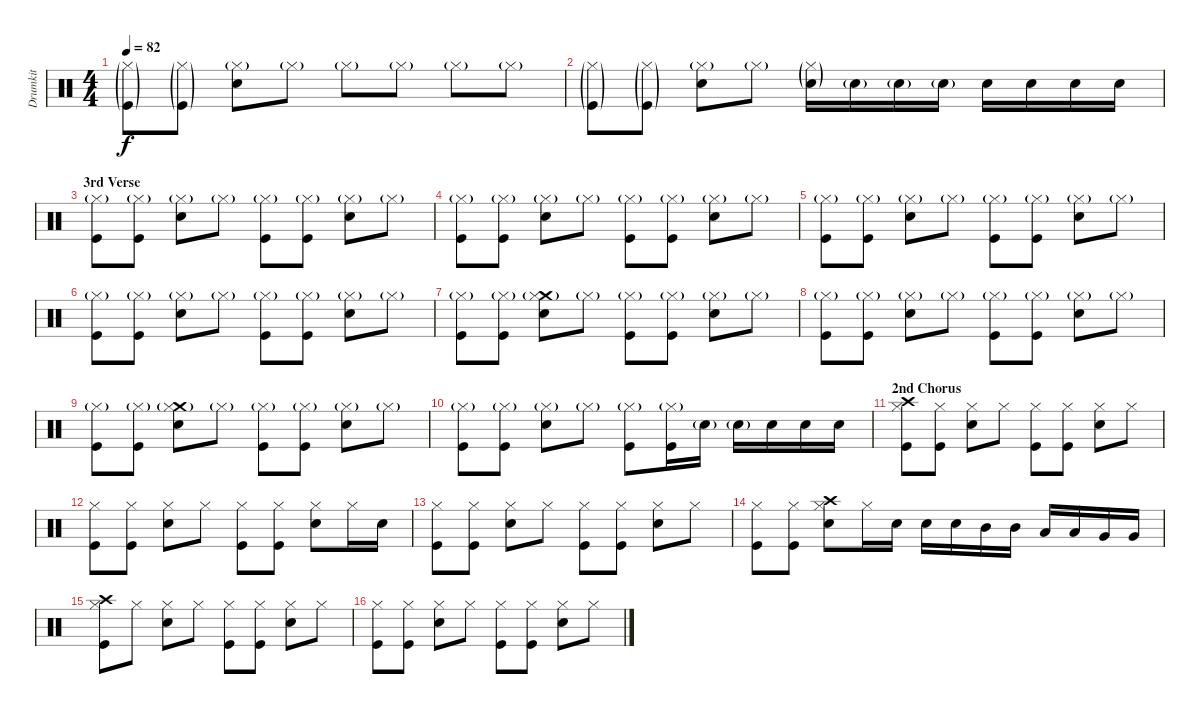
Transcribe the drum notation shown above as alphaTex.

\track ("Drumkit" "Drumkit") {instrument percussion}
\staff {score}
\articulation defaults
\ts (4 4)
\tempo 82
\clef neutral
\ks c
("Hi-Hat (closed)"{g} "Kick (hit)"{g}).8{dy f} ("Hi-Hat (closed)"{g} "Kick (hit)"{g}).8 ("Hi-Hat (closed)"{g} "Snare (hit) 2").8 "Hi-Hat (closed)"{g}.8 "Hi-Hat (closed)"{g}.8 "Hi-Hat (closed)"{g}.8 "Hi-Hat (closed)"{g}.8 "Hi-Hat (closed)"{g}.8 |
("Hi-Hat (closed)"{g} "Kick (hit)"{g}).8 ("Hi-Hat (closed)"{g} "Kick (hit)"{g}).8 ("Hi-Hat (closed)"{g} "Snare (hit) 2").8 "Hi-Hat (closed)"{g}.8 ("Hi-Hat (closed)"{g} "Snare (hit) 2"{g}).16 "Snare (hit) 2"{g}.16 "Snare (hit) 2"{g}.16 "Snare (hit) 2"{g}.16 "Snare (hit) 2".16 "Snare (hit) 2".16 "Snare (hit) 2".16 "Snare (hit) 2".16 |
\section ("" "3rd Verse")
("Hi-Hat (closed)"{g} "Kick (hit)").8 ("Hi-Hat (closed)"{g} "Kick (hit)").8 ("Hi-Hat (closed)"{g} "Snare (hit) 2").8 "Hi-Hat (closed)"{g}.8 ("Hi-Hat (closed)"{g} "Kick (hit)").8 ("Hi-Hat (closed)"{g} "Kick (hit)").8 ("Hi-Hat (closed)"{g} "Snare (hit) 2").8 "Hi-Hat (closed)"{g}.8 |
("Hi-Hat (closed)"{g} "Kick (hit)").8 ("Hi-Hat (closed)"{g} "Kick (hit)").8 ("Hi-Hat (closed)"{g} "Snare (hit) 2").8 "Hi-Hat (closed)"{g}.8 ("Hi-Hat (closed)"{g} "Kick (hit)").8 ("Hi-Hat (closed)"{g} "Kick (hit)").8 ("Hi-Hat (closed)"{g} "Snare (hit) 2").8 "Hi-Hat (closed)"{g}.8 |
("Hi-Hat (closed)"{g} "Kick (hit)").8 ("Hi-Hat (closed)"{g} "Kick (hit)").8 ("Hi-Hat (closed)"{g} "Snare (hit) 2").8 "Hi-Hat (closed)"{g}.8 ("Hi-Hat (closed)"{g} "Kick (hit)").8 ("Hi-Hat (closed)"{g} "Kick (hit)").8 ("Hi-Hat (closed)"{g} "Snare (hit) 2").8 "Hi-Hat (closed)"{g}.8 |
("Hi-Hat (closed)"{g} "Kick (hit)").8 ("Hi-Hat (closed)"{g} "Kick (hit)").8 ("Hi-Hat (closed)"{g} "Snare (hit) 2").8 "Hi-Hat (closed)"{g}.8 ("Hi-Hat (closed)"{g} "Kick (hit)").8 ("Hi-Hat (closed)"{g} "Kick (hit)").8 ("Hi-Hat (closed)"{g} "Snare (hit) 2").8 "Hi-Hat (closed)"{g}.8 |
("Hi-Hat (closed)"{g} "Kick (hit)").8 ("Hi-Hat (closed)"{g} "Kick (hit)").8 ("Crash medium (hit)" "Hi-Hat (closed)"{g} "Snare (hit) 2").8 "Hi-Hat (closed)"{g}.8 ("Hi-Hat (closed)"{g} "Kick (hit)").8 ("Hi-Hat (closed)"{g} "Kick (hit)").8 ("Hi-Hat (closed)"{g} "Snare (hit) 2").8 "Hi-Hat (closed)"{g}.8 |
("Hi-Hat (closed)"{g} "Kick (hit)").8 ("Hi-Hat (closed)"{g} "Kick (hit)").8 ("Hi-Hat (closed)"{g} "Snare (hit) 2").8 "Hi-Hat (closed)"{g}.8 ("Hi-Hat (closed)"{g} "Kick (hit)").8 ("Hi-Hat (closed)"{g} "Kick (hit)").8 ("Hi-Hat (closed)"{g} "Snare (hit) 2").8 "Hi-Hat (closed)"{g}.8 |
("Hi-Hat (closed)"{g} "Kick (hit)").8 ("Hi-Hat (closed)"{g} "Kick (hit)").8 ("Crash medium (hit)" "Hi-Hat (closed)"{g} "Snare (hit) 2").8 "Hi-Hat (closed)"{g}.8 ("Hi-Hat (closed)"{g} "Kick (hit)").8 ("Hi-Hat (closed)"{g} "Kick (hit)").8 ("Hi-Hat (closed)"{g} "Snare (hit) 2").8 "Hi-Hat (closed)"{g}.8 |
("Hi-Hat (closed)"{g} "Kick (hit)").8 ("Hi-Hat (closed)"{g} "Kick (hit)").8 ("Hi-Hat (closed)"{g} "Snare (hit) 2").8 "Hi-Hat (closed)"{g}.8 ("Hi-Hat (closed)"{g} "Kick (hit)").8 ("Hi-Hat (closed)"{g} "Kick (hit)").16 "Snare (hit) 2"{g}.16 "Snare (hit) 2"{g}.16 "Snare (hit) 2".16 "Snare (hit) 2".16 "Snare (hit) 2".16 |
\section ("" "2nd Chorus")
("Crash high (hit)" "Hi-Hat (closed)" "Kick (hit)").8 ("Hi-Hat (closed)" "Kick (hit)").8 ("Hi-Hat (closed)" "Snare (hit) 2").8 "Hi-Hat (closed)".8 ("Hi-Hat (closed)" "Kick (hit)").8 ("Hi-Hat (closed)" "Kick (hit)").8 ("Hi-Hat (closed)" "Snare (hit) 2").8 "Hi-Hat (closed)".8 |
("Hi-Hat (closed)" "Kick (hit)").8 ("Hi-Hat (closed)" "Kick (hit)").8 ("Hi-Hat (closed)" "Snare (hit) 2").8 "Hi-Hat (closed)".8 ("Hi-Hat (closed)" "Kick (hit)").8 ("Hi-Hat (closed)" "Kick (hit)").8 ("Hi-Hat (closed)" "Snare (hit) 2").8 "Hi-Hat (closed)".16 "Snare (hit) 2".16 |
("Hi-Hat (closed)" "Kick (hit)").8 ("Hi-Hat (closed)" "Kick (hit)").8 ("Hi-Hat (closed)" "Snare (hit) 2").8 "Hi-Hat (closed)".8 ("Hi-Hat (closed)" "Kick (hit)").8 ("Hi-Hat (closed)" "Kick (hit)").8 ("Hi-Hat (closed)" "Snare (hit) 2").8 "Hi-Hat (closed)".8 |
("Hi-Hat (closed)" "Kick (hit)").8 ("Hi-Hat (closed)" "Kick (hit)").8 ("Crash high (hit)" "Hi-Hat (closed)" "Snare (hit) 2").8 "Hi-Hat (closed)".16 "Snare (hit) 2".16 "Snare (hit) 2".16 "Snare (hit) 2".16 "Mid Tom (hit)".16 "Mid Tom (hit)".16 "Low Tom (hit)".16 "Low Tom (hit)".16 "Very Low Tom (hit)".16 "Very Low Tom (hit)".16 |
("Crash high (hit)" "Hi-Hat (closed)" "Kick (hit)").8 "Hi-Hat (closed)".8 ("Hi-Hat (closed)" "Snare (hit) 2").8 "Hi-Hat (closed)".8 ("Hi-Hat (closed)" "Kick (hit)").8 ("Hi-Hat (closed)" "Kick (hit)").8 ("Hi-Hat (closed)" "Snare (hit) 2").8 "Hi-Hat (closed)".8 |
("Hi-Hat (closed)" "Kick (hit)").8 ("Hi-Hat (closed)" "Kick (hit)").8 ("Hi-Hat (closed)" "Snare (hit) 2").8 "Hi-Hat (closed)".8 ("Hi-Hat (closed)" "Kick (hit)").8 ("Hi-Hat (closed)" "Kick (hit)").8 ("Hi-Hat (closed)" "Snare (hit) 2").8 "Hi-Hat (closed)".8
